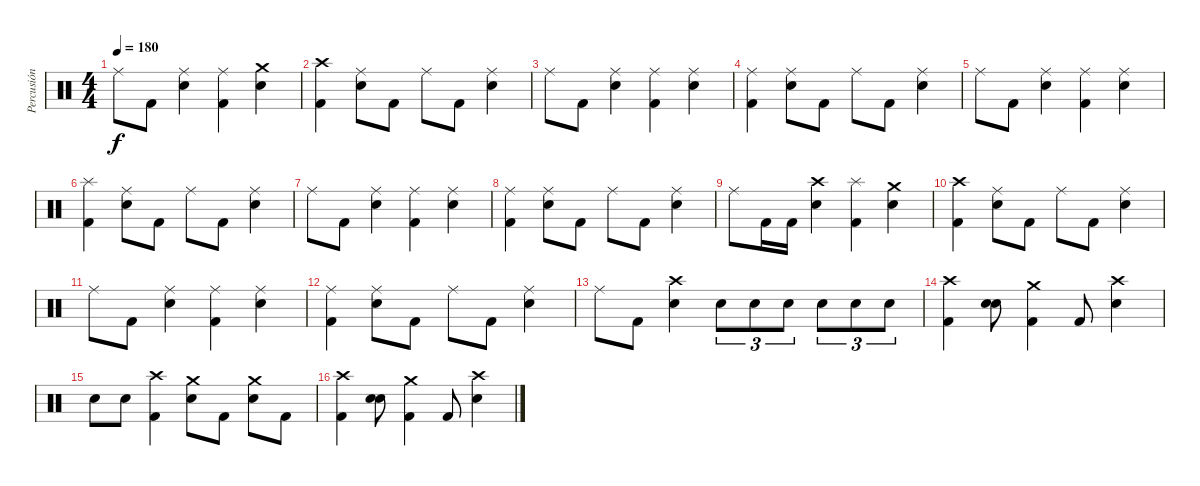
\track ("Percusión" "Percusión") {instrument percussion}
\staff {score}
\articulation defaults
\ts (4 4)
\tempo 180
\clef neutral
\ks c "Ride (middle)".8{dy f} "Kick (hit) 2".8
("Ride (middle)" "Electric Snare (hit)").4 ("Ride (middle)" "Kick (hit) 2").4 ("Crash medium (hit)" "Electric Snare (hit)").4 |
("Crash high (hit)" "Kick (hit) 2").4 ("Ride (middle)" "Electric Snare (hit)").8 "Kick (hit) 2".8 "Ride (middle)".8 "Kick (hit) 2".8 ("Ride (middle)" "Electric Snare (hit)").4 |
"Ride (middle)".8 "Kick (hit) 2".8 ("Ride (middle)" "Electric Snare (hit)").4 ("Ride (middle)" "Kick (hit) 2").4 ("Ride (middle)" "Electric Snare (hit)").4 |
("Ride (middle)" "Kick (hit) 2").4 ("Ride (middle)" "Electric Snare (hit)").8 "Kick (hit) 2".8 "Ride (middle)".8 "Kick (hit) 2".8 ("Ride (middle)" "Electric Snare (hit)").4 |
"Ride (middle)".8 "Kick (hit) 2".8 ("Ride (middle)" "Electric Snare (hit)").4 ("Ride (middle)" "Kick (hit) 2").4 ("Ride (middle)" "Electric Snare (hit)").4 |
("Splash (hit)" "Kick (hit) 2").4 ("Ride (middle)" "Electric Snare (hit)").8 "Kick (hit) 2".8 "Ride (middle)".8 "Kick (hit) 2".8 ("Ride (middle)" "Electric Snare (hit)").4 |
"Ride (middle)".8 "Kick (hit) 2".8 ("Ride (middle)" "Electric Snare (hit)").4 ("Ride (middle)" "Kick (hit) 2").4 ("Ride (middle)" "Electric Snare (hit)").4 |
("Ride (middle)" "Kick (hit) 2").4 ("Ride (middle)" "Electric Snare (hit)").8 "Kick (hit) 2".8 "Ride (middle)".8 "Kick (hit) 2".8 ("Ride (middle)" "Electric Snare (hit)").4 |
"Ride (middle)".8 "Kick (hit) 2".16 "Kick (hit) 2".16 ("Crash high (hit)" "Electric Snare (hit)").4 ("Splash (hit)" "Kick (hit) 2").4 ("Crash medium (hit)" "Electric Snare (hit)").4 |
("Crash high (hit)" "Kick (hit) 2").4 ("Ride (middle)" "Electric Snare (hit)").8 "Kick (hit) 2".8 "Ride (middle)".8 "Kick (hit) 2".8 ("Ride (middle)" "Electric Snare (hit)").4 |
"Ride (middle)".8 "Kick (hit) 2".8 ("Ride (middle)" "Electric Snare (hit)").4 ("Ride (middle)" "Kick (hit) 2").4 ("Ride (middle)" "Electric Snare (hit)").4 |
("Ride (middle)" "Kick (hit) 2").4 ("Ride (middle)" "Electric Snare (hit)").8 "Kick (hit) 2".8 "Ride (middle)".8 "Kick (hit) 2".8 ("Ride (middle)" "Electric Snare (hit)").4 |
"Ride (middle)".8 "Kick (hit) 2".8 ("Crash high (hit)" "Electric Snare (hit)").4 "Electric Snare (hit)".8{tu (3 2)} "Electric Snare (hit)".8{tu (3 2)} "Electric Snare (hit)".8{tu (3 2)} "Electric Snare (hit)".8{tu (3 2)} "Electric Snare (hit)".8{tu (3 2)} "Electric Snare (hit)".8{tu (3 2)} |
("Crash high (hit)" "Kick (hit) 2").4 ("Electric Snare (hit)" "Electric Snare (hit)").8{bd 240} ("Crash medium (hit)" "Kick (hit) 2").4 "Kick (hit) 2".8 ("Crash high (hit)" "Electric Snare (hit)").4 |
"Electric Snare (hit)".8 "Electric Snare (hit)".8 ("Crash high (hit)" "Kick (hit) 2").4 ("Crash medium (hit)" "Electric Snare (hit)").8 "Kick (hit) 2".8 ("Crash medium (hit)" "Electric Snare (hit)").8 "Kick (hit) 2".8 |
("Crash high (hit)" "Kick (hit) 2").4 ("Electric Snare (hit)" "Electric Snare (hit)").8{bd 240} ("Crash medium (hit)" "Kick (hit) 2").4 "Kick (hit) 2".8 ("Crash high (hit)" "Electric Snare (hit)").4
